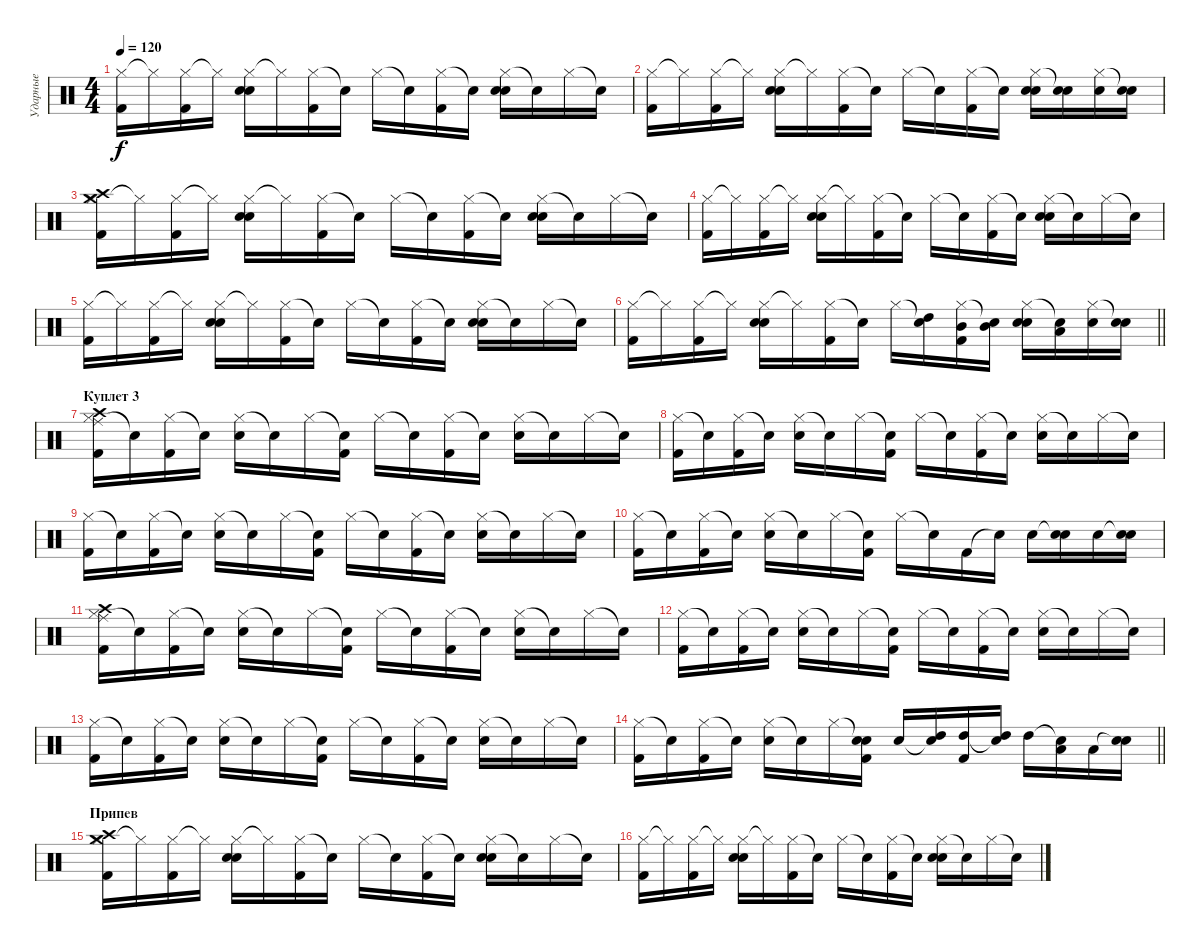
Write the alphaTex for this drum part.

\track ("Ударные" "Ударные") {instrument percussion}
\staff {score}
\articulation defaults
\ts (4 4)
\tempo 120
\clef neutral
\ks c
("Hi-Hat (closed)" "Kick (hit) 2").16{dy f} "Hi-Hat (closed)"{t}.16 ("Hi-Hat (closed)" "Kick (hit) 2").16 "Hi-Hat (closed)"{t}.16 ("Hi-Hat (closed)" "Electric Snare (hit)" "Snare (hit) 2").16 "Hi-Hat (closed)"{t}.16 ("Hi-Hat (closed)" "Kick (hit) 2").16 "Snare (hit)"{t}.16 "Hi-Hat (closed)".16 "Snare (hit)"{t}.16 ("Hi-Hat (closed)" "Kick (hit) 2").16 "Snare (hit)"{t}.16 ("Hi-Hat (closed)" "Electric Snare (hit)" "Snare (hit) 2").16 "Snare (hit)"{t}.16 "Hi-Hat (closed)".16 "Snare (hit)"{t}.16 |
("Hi-Hat (closed)" "Kick (hit) 2").16 "Hi-Hat (closed)"{t}.16 ("Hi-Hat (closed)" "Kick (hit) 2").16 "Hi-Hat (closed)"{t}.16 ("Hi-Hat (closed)" "Electric Snare (hit)" "Snare (hit) 2").16 "Hi-Hat (closed)"{t}.16 ("Hi-Hat (closed)" "Kick (hit) 2").16 "Snare (hit)"{t}.16 "Hi-Hat (closed)".16 "Snare (hit)"{t}.16 ("Hi-Hat (closed)" "Kick (hit) 2").16 "Snare (hit)"{t}.16 ("Hi-Hat (closed)" "Electric Snare (hit)" "Snare (hit) 2").16 ("Snare (hit)"{t} "Electric Snare (hit)").16 ("Hi-Hat (closed)" "Electric Snare (hit)").16 ("Snare (hit)"{t} "Electric Snare (hit)").16 |
("Hi-Hat (closed)" "Crash medium (hit)" "Crash high (hit)" "Kick (hit) 2").16 "Hi-Hat (closed)"{t}.16 ("Hi-Hat (closed)" "Kick (hit) 2").16 "Hi-Hat (closed)"{t}.16 ("Hi-Hat (closed)" "Electric Snare (hit)" "Snare (hit) 2").16 "Hi-Hat (closed)"{t}.16 ("Hi-Hat (closed)" "Kick (hit) 2").16 "Snare (hit)"{t}.16 "Hi-Hat (closed)".16 "Snare (hit)"{t}.16 ("Hi-Hat (closed)" "Kick (hit) 2").16 "Snare (hit)"{t}.16 ("Hi-Hat (closed)" "Electric Snare (hit)" "Snare (hit) 2").16 "Snare (hit)"{t}.16 "Hi-Hat (closed)".16 "Snare (hit)"{t}.16 |
("Hi-Hat (closed)" "Kick (hit) 2").16 "Hi-Hat (closed)"{t}.16 ("Hi-Hat (closed)" "Kick (hit) 2").16 "Hi-Hat (closed)"{t}.16 ("Hi-Hat (closed)" "Electric Snare (hit)" "Snare (hit) 2").16 "Hi-Hat (closed)"{t}.16 ("Hi-Hat (closed)" "Kick (hit) 2").16 "Snare (hit)"{t}.16 "Hi-Hat (closed)".16 "Snare (hit)"{t}.16 ("Hi-Hat (closed)" "Kick (hit) 2").16 "Snare (hit)"{t}.16 ("Hi-Hat (closed)" "Electric Snare (hit)" "Snare (hit) 2").16 "Snare (hit)"{t}.16 "Hi-Hat (closed)".16 "Snare (hit)"{t}.16 |
("Hi-Hat (closed)" "Kick (hit) 2").16 "Hi-Hat (closed)"{t}.16 ("Hi-Hat (closed)" "Kick (hit) 2").16 "Hi-Hat (closed)"{t}.16 ("Hi-Hat (closed)" "Electric Snare (hit)" "Snare (hit) 2").16 "Hi-Hat (closed)"{t}.16 ("Hi-Hat (closed)" "Kick (hit) 2").16 "Snare (hit)"{t}.16 "Hi-Hat (closed)".16 "Snare (hit)"{t}.16 ("Hi-Hat (closed)" "Kick (hit) 2").16 "Snare (hit)"{t}.16 ("Hi-Hat (closed)" "Electric Snare (hit)" "Snare (hit) 2").16 "Snare (hit)"{t}.16 "Hi-Hat (closed)".16 "Snare (hit)"{t}.16 |
\barLineRight lightlight
("Hi-Hat (closed)" "Kick (hit) 2").16 "Hi-Hat (closed)"{t}.16 ("Hi-Hat (closed)" "Kick (hit) 2").16 "Hi-Hat (closed)"{t}.16 ("Hi-Hat (closed)" "Electric Snare (hit)" "Snare (hit) 2").16 "Hi-Hat (closed)"{t}.16 ("Hi-Hat (closed)" "Kick (hit) 2").16 "Snare (hit)"{t}.16 "Hi-Hat (closed)".16 ("Snare (hit)"{t} "High Tom (hit)").16 ("Hi-Hat (closed)" "Mid Tom (hit)" "Kick (hit) 2").16 ("Snare (hit)"{t} "Mid Tom (hit)").16 ("Hi-Hat (closed)" "Electric Snare (hit)" "Snare (hit) 2").16 ("Snare (hit)"{t} "Low Tom (hit)").16 ("Hi-Hat (closed)" "Electric Snare (hit)").16 ("Snare (hit)"{t} "Electric Snare (hit)").16 |
\section ("" "Куплет 3")
("Hi-Hat (closed)" "Ride (middle)" "Crash high (hit)" "Kick (hit) 2").16 "Snare (hit)"{t}.16 ("Hi-Hat (closed)" "Kick (hit) 2").16 "Snare (hit)"{t}.16 ("Hi-Hat (closed)" "Snare (hit) 2").16 "Snare (hit)"{t}.16 "Hi-Hat (closed)".16 ("Snare (hit)"{t} "Kick (hit) 2").16 "Hi-Hat (closed)".16 "Snare (hit)"{t}.16 ("Hi-Hat (closed)" "Kick (hit) 2").16 "Snare (hit)"{t}.16 ("Hi-Hat (closed)" "Snare (hit) 2").16 "Snare (hit)"{t}.16 "Hi-Hat (closed)".16 "Snare (hit)"{t}.16 |
("Hi-Hat (closed)" "Kick (hit) 2").16 "Snare (hit)"{t}.16 ("Hi-Hat (closed)" "Kick (hit) 2").16 "Snare (hit)"{t}.16 ("Hi-Hat (closed)" "Snare (hit) 2").16 "Snare (hit)"{t}.16 "Hi-Hat (closed)".16 ("Snare (hit)"{t} "Kick (hit) 2").16 "Hi-Hat (closed)".16 "Snare (hit)"{t}.16 ("Hi-Hat (closed)" "Kick (hit) 2").16 "Snare (hit)"{t}.16 ("Hi-Hat (closed)" "Snare (hit) 2").16 "Snare (hit)"{t}.16 "Hi-Hat (closed)".16 "Snare (hit)"{t}.16 |
("Hi-Hat (closed)" "Kick (hit) 2").16 "Snare (hit)"{t}.16 ("Hi-Hat (closed)" "Kick (hit) 2").16 "Snare (hit)"{t}.16 ("Hi-Hat (closed)" "Snare (hit) 2").16 "Snare (hit)"{t}.16 "Hi-Hat (closed)".16 ("Snare (hit)"{t} "Kick (hit) 2").16 "Hi-Hat (closed)".16 "Snare (hit)"{t}.16 ("Hi-Hat (closed)" "Kick (hit) 2").16 "Snare (hit)"{t}.16 ("Hi-Hat (closed)" "Snare (hit) 2").16 "Snare (hit)"{t}.16 "Hi-Hat (closed)".16 "Snare (hit)"{t}.16 |
("Hi-Hat (closed)" "Kick (hit) 2").16 "Snare (hit)"{t}.16 ("Hi-Hat (closed)" "Kick (hit) 2").16 "Snare (hit)"{t}.16 ("Hi-Hat (closed)" "Snare (hit) 2").16 "Snare (hit)"{t}.16 "Hi-Hat (closed)".16 ("Snare (hit)"{t} "Kick (hit) 2").16 "Hi-Hat (closed)".16 "Snare (hit)"{t}.16 "Kick (hit) 2".16 "Snare (hit)"{t}.16 "Snare (hit) 2".16 ("Snare (hit)"{t} "Snare (hit) 2").16 "Snare (hit) 2".16 ("Snare (hit)"{t} "Snare (hit) 2").16 |
("Hi-Hat (closed)" "Ride (middle)" "Crash high (hit)" "Kick (hit) 2").16 "Snare (hit)"{t}.16 ("Hi-Hat (closed)" "Kick (hit) 2").16 "Snare (hit)"{t}.16 ("Hi-Hat (closed)" "Snare (hit) 2").16 "Snare (hit)"{t}.16 "Hi-Hat (closed)".16 ("Snare (hit)"{t} "Kick (hit) 2").16 "Hi-Hat (closed)".16 "Snare (hit)"{t}.16 ("Hi-Hat (closed)" "Kick (hit) 2").16 "Snare (hit)"{t}.16 ("Hi-Hat (closed)" "Snare (hit) 2").16 "Snare (hit)"{t}.16 "Hi-Hat (closed)".16 "Snare (hit)"{t}.16 |
("Hi-Hat (closed)" "Kick (hit) 2").16 "Snare (hit)"{t}.16 ("Hi-Hat (closed)" "Kick (hit) 2").16 "Snare (hit)"{t}.16 ("Hi-Hat (closed)" "Snare (hit) 2").16 "Snare (hit)"{t}.16 "Hi-Hat (closed)".16 ("Snare (hit)"{t} "Kick (hit) 2").16 "Hi-Hat (closed)".16 "Snare (hit)"{t}.16 ("Hi-Hat (closed)" "Kick (hit) 2").16 "Snare (hit)"{t}.16 ("Hi-Hat (closed)" "Snare (hit) 2").16 "Snare (hit)"{t}.16 "Hi-Hat (closed)".16 "Snare (hit)"{t}.16 |
("Hi-Hat (closed)" "Kick (hit) 2").16 "Snare (hit)"{t}.16 ("Hi-Hat (closed)" "Kick (hit) 2").16 "Snare (hit)"{t}.16 ("Hi-Hat (closed)" "Snare (hit) 2").16 "Snare (hit)"{t}.16 "Hi-Hat (closed)".16 ("Snare (hit)"{t} "Kick (hit) 2").16 "Hi-Hat (closed)".16 "Snare (hit)"{t}.16 ("Hi-Hat (closed)" "Kick (hit) 2").16 "Snare (hit)"{t}.16 ("Hi-Hat (closed)" "Snare (hit) 2").16 "Snare (hit)"{t}.16 "Hi-Hat (closed)".16 "Snare (hit)"{t}.16 |
\barLineRight lightlight
("Hi-Hat (closed)" "Kick (hit) 2").16 "Snare (hit)"{t}.16 ("Hi-Hat (closed)" "Kick (hit) 2").16 "Snare (hit)"{t}.16 ("Hi-Hat (closed)" "Snare (hit) 2").16 "Snare (hit)"{t}.16 "Hi-Hat (closed)".16 ("Snare (hit)"{t} "Snare (hit) 2" "Kick (hit) 2").16 "Snare (hit) 2".16 ("Snare (hit)"{t} "High Tom (hit)").16 ("High Tom (hit)" "Kick (hit) 2").16 ("Snare (hit)"{t} "High Tom (hit)").16 "High Tom (hit)".16 ("Snare (hit)"{t} "Low Tom (hit)").16 "Low Tom (hit)".16 ("Snare (hit)"{t} "Snare (hit) 2").16 |
\section ("" "Припев")
("Hi-Hat (closed)" "Crash medium (hit)" "Crash high (hit)" "Kick (hit) 2").16 "Hi-Hat (closed)"{t}.16 ("Hi-Hat (closed)" "Kick (hit) 2").16 "Hi-Hat (closed)"{t}.16 ("Hi-Hat (closed)" "Electric Snare (hit)" "Snare (hit) 2").16 "Hi-Hat (closed)"{t}.16 ("Hi-Hat (closed)" "Kick (hit) 2").16 "Snare (hit)"{t}.16 "Hi-Hat (closed)".16 "Snare (hit)"{t}.16 ("Hi-Hat (closed)" "Kick (hit) 2").16 "Snare (hit)"{t}.16 ("Hi-Hat (closed)" "Electric Snare (hit)" "Snare (hit) 2").16 "Snare (hit)"{t}.16 "Hi-Hat (closed)".16 "Snare (hit)"{t}.16 |
("Hi-Hat (closed)" "Kick (hit) 2").16 "Hi-Hat (closed)"{t}.16 ("Hi-Hat (closed)" "Kick (hit) 2").16 "Hi-Hat (closed)"{t}.16 ("Hi-Hat (closed)" "Electric Snare (hit)" "Snare (hit) 2").16 "Hi-Hat (closed)"{t}.16 ("Hi-Hat (closed)" "Kick (hit) 2").16 "Snare (hit)"{t}.16 "Hi-Hat (closed)".16 "Snare (hit)"{t}.16 ("Hi-Hat (closed)" "Kick (hit) 2").16 "Snare (hit)"{t}.16 ("Hi-Hat (closed)" "Electric Snare (hit)" "Snare (hit) 2").16 "Snare (hit)"{t}.16 "Hi-Hat (closed)".16 "Snare (hit)"{t}.16
